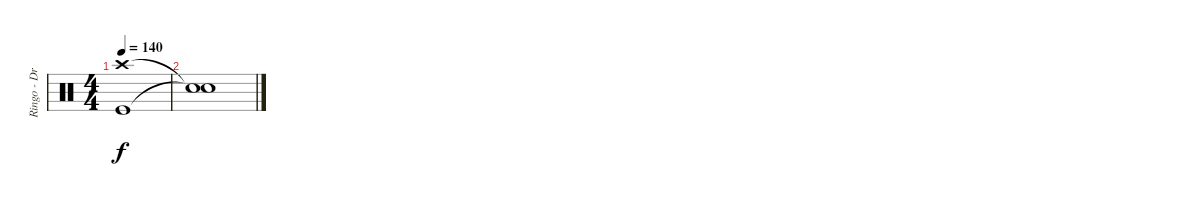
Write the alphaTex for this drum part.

\track ("Ringo - Drums" "Ringo - Dr") {instrument percussion}
\staff {score}
\articulation defaults
\ts (4 4)
\tempo 140
\clef neutral
\ks c
("Kick (hit)" "Crash high (hit)").1{dy f} |
("Snare (hit)"{t} "Snare (hit)"{t}).1
